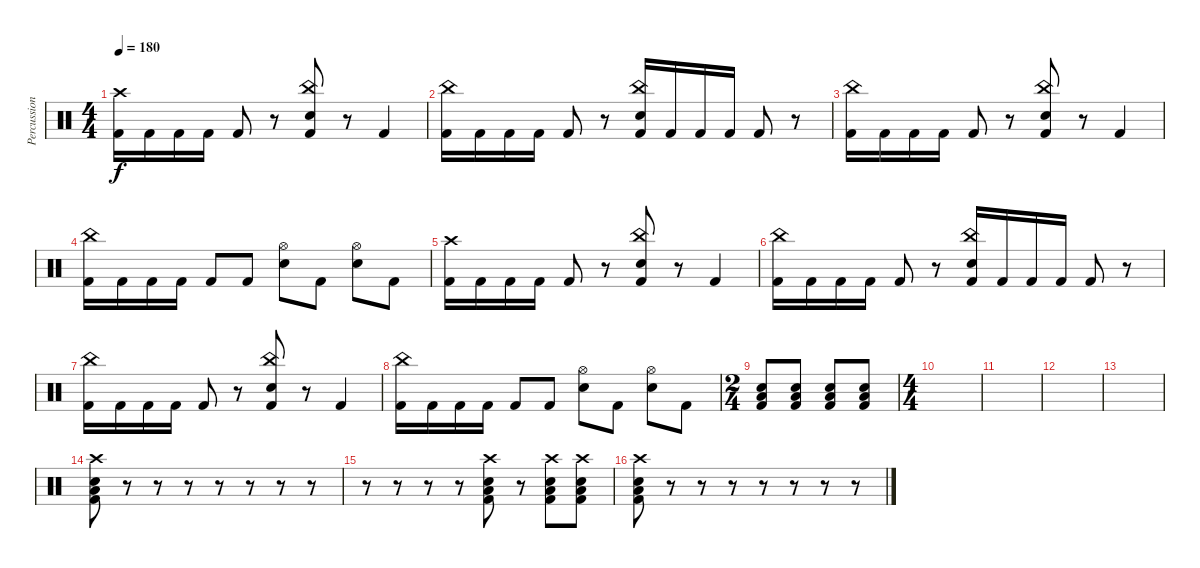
\track ("Percussion" "Percussion") {instrument percussion}
\staff {score}
\articulation defaults
\ts (4 4)
\tempo 180
\clef neutral
\ks c
("Crash high (hit)" "Kick (hit) 2").16{dy f volume 13} "Kick (hit) 2".16 "Kick (hit) 2".16 "Kick (hit) 2".16 "Kick (hit) 2".8 r.8 ("China (hit)" "Electric Snare (hit)" "Kick (hit) 2").8 r.8 "Kick (hit) 2".4 |
("China (hit)" "Kick (hit) 2").16 "Kick (hit) 2".16 "Kick (hit) 2".16 "Kick (hit) 2".16 "Kick (hit) 2".8 r.8 ("China (hit)" "Electric Snare (hit)" "Kick (hit) 2").16 "Kick (hit) 2".16 "Kick (hit) 2".16 "Kick (hit) 2".16 "Kick (hit) 2".8 r.8 |
("China (hit)" "Kick (hit) 2").16 "Kick (hit) 2".16 "Kick (hit) 2".16 "Kick (hit) 2".16 "Kick (hit) 2".8 r.8 ("China (hit)" "Electric Snare (hit)" "Kick (hit) 2").8 r.8 "Kick (hit) 2".4 |
("China (hit)" "Kick (hit) 2").16 "Kick (hit) 2".16 "Kick (hit) 2".16 "Kick (hit) 2".16 "Kick (hit) 2".8 "Kick (hit) 2".8 ("Hi-Hat (open)" "Electric Snare (hit)").8 "Kick (hit) 2".8 ("Hi-Hat (open)" "Electric Snare (hit)").8 "Kick (hit) 2".8 |
("Crash high (hit)" "Kick (hit) 2").16{volume 13} "Kick (hit) 2".16 "Kick (hit) 2".16 "Kick (hit) 2".16 "Kick (hit) 2".8 r.8 ("China (hit)" "Electric Snare (hit)" "Kick (hit) 2").8 r.8 "Kick (hit) 2".4 |
("China (hit)" "Kick (hit) 2").16 "Kick (hit) 2".16 "Kick (hit) 2".16 "Kick (hit) 2".16 "Kick (hit) 2".8 r.8 ("China (hit)" "Electric Snare (hit)" "Kick (hit) 2").16 "Kick (hit) 2".16 "Kick (hit) 2".16 "Kick (hit) 2".16 "Kick (hit) 2".8 r.8 |
("China (hit)" "Kick (hit) 2").16 "Kick (hit) 2".16 "Kick (hit) 2".16 "Kick (hit) 2".16 "Kick (hit) 2".8 r.8 ("China (hit)" "Electric Snare (hit)" "Kick (hit) 2").8 r.8 "Kick (hit) 2".4 |
("China (hit)" "Kick (hit) 2").16 "Kick (hit) 2".16 "Kick (hit) 2".16 "Kick (hit) 2".16 "Kick (hit) 2".8 "Kick (hit) 2".8 ("Hi-Hat (open)" "Electric Snare (hit)").8 "Kick (hit) 2".8 ("Hi-Hat (open)" "Electric Snare (hit)").8 "Kick (hit) 2".8 |
\ts (2 4)
("Electric Snare (hit)" "Low Floor Tom (hit)" "Kick (hit) 2").8 ("Electric Snare (hit)" "Low Floor Tom (hit)" "Kick (hit) 2").8 ("Electric Snare (hit)" "Low Floor Tom (hit)" "Kick (hit) 2").8 ("Electric Snare (hit)" "Low Floor Tom (hit)" "Kick (hit) 2").8 |
\ts (4 4)
|
|
|
|
("Crash high (hit)" "Electric Snare (hit)" "Low Floor Tom (hit)" "Kick (hit) 2").8 r.8 r.8 r.8 r.8 r.8 r.8 r.8 |
r.8 r.8 r.8 r.8 ("Crash high (hit)" "Electric Snare (hit)" "Low Floor Tom (hit)" "Kick (hit) 2").8 r.8 ("Crash high (hit)" "Electric Snare (hit)" "Low Floor Tom (hit)" "Kick (hit) 2").8 ("Crash high (hit)" "Electric Snare (hit)" "Low Floor Tom (hit)" "Kick (hit) 2").8 |
("Crash high (hit)" "Electric Snare (hit)" "Low Floor Tom (hit)" "Kick (hit) 2").8 r.8 r.8 r.8 r.8 r.8 r.8 r.8
